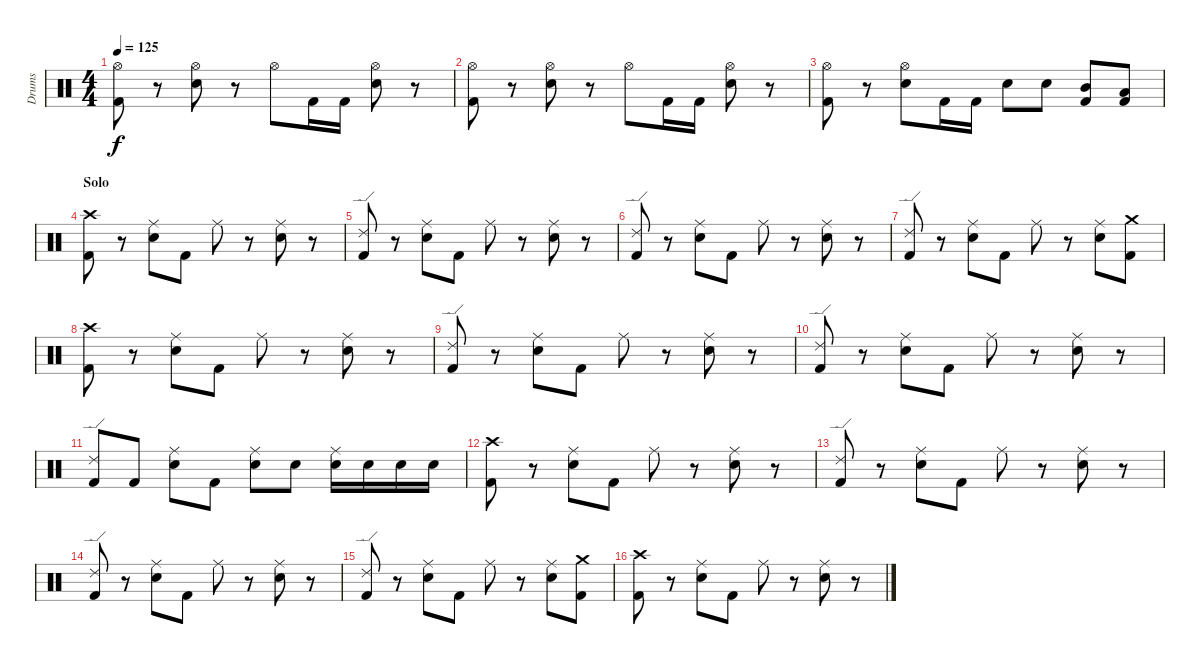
\track ("Drums" "Drums") {instrument percussion}
\staff {score}
\articulation defaults
\ts (4 4)
\tempo 125
\clef neutral
\ks c
("Hi-Hat (open)" "Kick (hit) 2").8{dy f} r.8 ("Hi-Hat (open)" "Snare (hit) 2").8 r.8 "Hi-Hat (open)".8 "Kick (hit) 2".16 "Kick (hit) 2".16 ("Hi-Hat (open)" "Snare (hit) 2").8 r.8 |
("Hi-Hat (open)" "Kick (hit) 2").8 r.8 ("Hi-Hat (open)" "Snare (hit) 2").8 r.8 "Hi-Hat (open)".8 "Kick (hit) 2".16 "Kick (hit) 2".16 ("Hi-Hat (open)" "Snare (hit) 2").8 r.8 |
("Hi-Hat (open)" "Kick (hit) 2").8 r.8 ("Hi-Hat (open)" "Snare (hit) 2").8 "Kick (hit) 2".16 "Kick (hit) 2".16 "Snare (hit) 2".8 "Snare (hit) 2".8 ("Mid Tom (hit)" "Kick (hit) 2").8 ("Low Tom (hit)" "Kick (hit) 2").8 |
\section ("" "Solo")
("Crash high (hit)" "Kick (hit) 2").8 r.8 ("Ride (middle)" "Snare (hit) 2").8 "Kick (hit) 2".8 "Ride (middle)".8 r.8 ("Ride (middle)" "Snare (hit) 2").8 r.8 |
("Ride (edge) 2" "Kick (hit) 2").8 r.8 ("Ride (middle)" "Snare (hit) 2").8 "Kick (hit) 2".8 "Ride (middle)".8 r.8 ("Ride (middle)" "Snare (hit) 2").8 r.8 |
("Ride (edge) 2" "Kick (hit) 2").8 r.8 ("Ride (middle)" "Snare (hit) 2").8 "Kick (hit) 2".8 "Ride (middle)".8 r.8 ("Ride (middle)" "Snare (hit) 2").8 r.8 |
("Ride (edge) 2" "Kick (hit) 2").8 r.8 ("Ride (middle)" "Snare (hit) 2").8 "Kick (hit) 2".8 "Ride (middle)".8 r.8 ("Ride (middle)" "Snare (hit) 2").8 ("Crash medium (hit)" "Kick (hit) 2").8 |
("Crash high (hit)" "Kick (hit) 2").8 r.8 ("Ride (middle)" "Snare (hit) 2").8 "Kick (hit) 2".8 "Ride (middle)".8 r.8 ("Ride (middle)" "Snare (hit) 2").8 r.8 |
("Ride (edge) 2" "Kick (hit) 2").8 r.8 ("Ride (middle)" "Snare (hit) 2").8 "Kick (hit) 2".8 "Ride (middle)".8 r.8 ("Ride (middle)" "Snare (hit) 2").8 r.8 |
("Ride (edge) 2" "Kick (hit) 2").8 r.8 ("Ride (middle)" "Snare (hit) 2").8 "Kick (hit) 2".8 "Ride (middle)".8 r.8 ("Ride (middle)" "Snare (hit) 2").8 r.8 |
("Ride (edge) 2" "Kick (hit) 2").8 "Kick (hit) 2".8 ("Ride (middle)" "Snare (hit) 2").8 "Kick (hit) 2".8 ("Ride (middle)" "Snare (hit) 2").8 "Snare (hit) 2".8 ("Ride (middle)" "Snare (hit) 2").16 "Snare (hit) 2".16 "Snare (hit) 2".16 "Snare (hit) 2".16 |
("Crash high (hit)" "Kick (hit) 2").8 r.8 ("Ride (middle)" "Snare (hit) 2").8 "Kick (hit) 2".8 "Ride (middle)".8 r.8 ("Ride (middle)" "Snare (hit) 2").8 r.8 |
("Ride (edge) 2" "Kick (hit) 2").8 r.8 ("Ride (middle)" "Snare (hit) 2").8 "Kick (hit) 2".8 "Ride (middle)".8 r.8 ("Ride (middle)" "Snare (hit) 2").8 r.8 |
("Ride (edge) 2" "Kick (hit) 2").8 r.8 ("Ride (middle)" "Snare (hit) 2").8 "Kick (hit) 2".8 "Ride (middle)".8 r.8 ("Ride (middle)" "Snare (hit) 2").8 r.8 |
("Ride (edge) 2" "Kick (hit) 2").8 r.8 ("Ride (middle)" "Snare (hit) 2").8 "Kick (hit) 2".8 "Ride (middle)".8 r.8 ("Ride (middle)" "Snare (hit) 2").8 ("Crash medium (hit)" "Kick (hit) 2").8 |
("Crash high (hit)" "Kick (hit) 2").8 r.8 ("Ride (middle)" "Snare (hit) 2").8 "Kick (hit) 2".8 "Ride (middle)".8 r.8 ("Ride (middle)" "Snare (hit) 2").8 r.8
